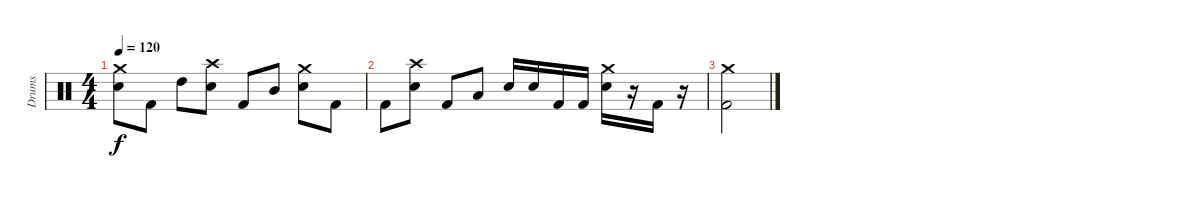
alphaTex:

\track ("Drums" "Drums") {instrument percussion}
\staff {score}
\articulation defaults
\ts (4 4)
\tempo 120
\clef neutral
\ks c
("Crash medium (hit)" "Electric Snare (hit)").8{dy f} "Kick (hit) 2".8 "High Tom (hit)".8 ("Crash high (hit)" "Electric Snare (hit)").8 "Kick (hit) 2".8 "Mid Tom (hit)".8 ("Crash medium (hit)" "Electric Snare (hit)").8 "Kick (hit) 2".8 |
"Kick (hit) 2".8 ("Crash high (hit)" "Electric Snare (hit)").8 "Kick (hit) 2".8 "Low Floor Tom (hit)".8 "Electric Snare (hit)".16 "Electric Snare (hit)".16 "Kick (hit) 2".16 "Kick (hit) 2".16 ("Crash medium (hit)" "Electric Snare (hit)").16 r.16 "Kick (hit) 2".16 r.16 |
("Crash medium (hit)" "Kick (hit) 2").2
